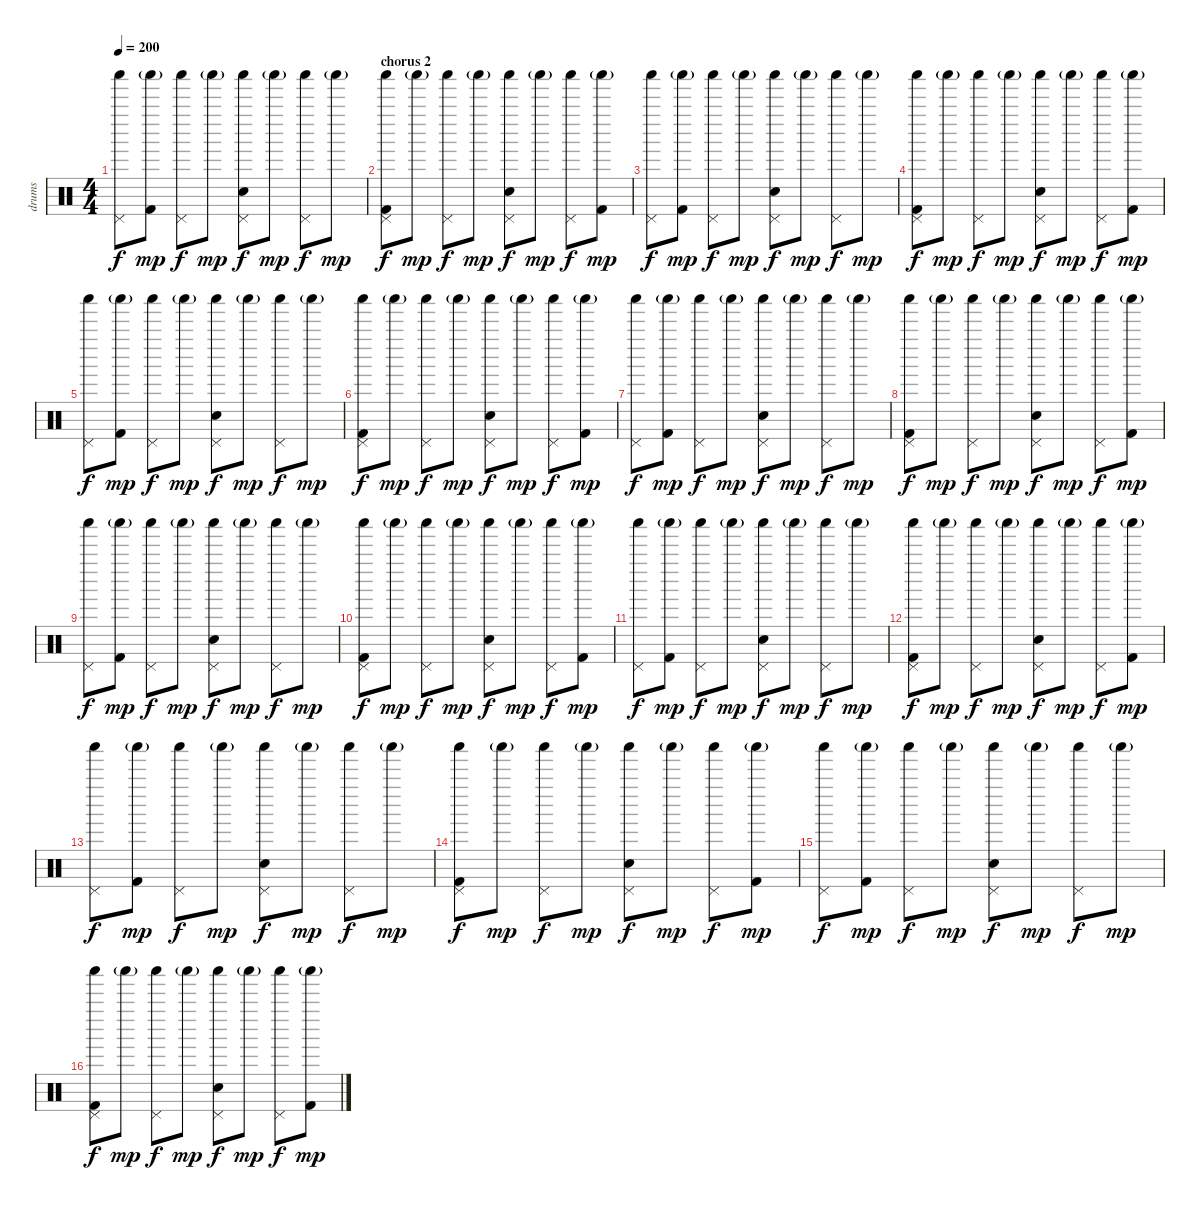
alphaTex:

\track ("drums" "drums") {instrument percussion}
\staff {score}
\articulation defaults
\ts (4 4)
\tempo 200
\clef neutral
\ks c
("Shaker (hit)" "Pedal Hi-Hat (hit)").8{dy f} ("Kick (hit) 2" "Shaker (hit)"{g}).8{dy mp} ("Shaker (hit)" "Pedal Hi-Hat (hit)").8{dy f} "Shaker (hit)"{g}.8{dy mp} ("Electric Snare (hit)" "Shaker (hit)" "Pedal Hi-Hat (hit)").8{dy f} "Shaker (hit)"{g}.8{dy mp} ("Shaker (hit)" "Pedal Hi-Hat (hit)").8{dy f} "Shaker (hit)"{g}.8{dy mp} |
\section ("" "chorus 2")
("Kick (hit) 2" "Shaker (hit)" "Pedal Hi-Hat (hit)").8{dy f} "Shaker (hit)"{g}.8{dy mp} ("Shaker (hit)" "Pedal Hi-Hat (hit)").8{dy f} "Shaker (hit)"{g}.8{dy mp} ("Electric Snare (hit)" "Shaker (hit)" "Pedal Hi-Hat (hit)").8{dy f} "Shaker (hit)"{g}.8{dy mp} ("Shaker (hit)" "Pedal Hi-Hat (hit)").8{dy f} ("Kick (hit) 2" "Shaker (hit)"{g}).8{dy mp} |
("Shaker (hit)" "Pedal Hi-Hat (hit)").8{dy f} ("Kick (hit) 2" "Shaker (hit)"{g}).8{dy mp} ("Shaker (hit)" "Pedal Hi-Hat (hit)").8{dy f} "Shaker (hit)"{g}.8{dy mp} ("Electric Snare (hit)" "Shaker (hit)" "Pedal Hi-Hat (hit)").8{dy f} "Shaker (hit)"{g}.8{dy mp} ("Shaker (hit)" "Pedal Hi-Hat (hit)").8{dy f} "Shaker (hit)"{g}.8{dy mp} |
("Kick (hit) 2" "Shaker (hit)" "Pedal Hi-Hat (hit)").8{dy f} "Shaker (hit)"{g}.8{dy mp} ("Shaker (hit)" "Pedal Hi-Hat (hit)").8{dy f} "Shaker (hit)"{g}.8{dy mp} ("Electric Snare (hit)" "Shaker (hit)" "Pedal Hi-Hat (hit)").8{dy f} "Shaker (hit)"{g}.8{dy mp} ("Shaker (hit)" "Pedal Hi-Hat (hit)").8{dy f} ("Kick (hit) 2" "Shaker (hit)"{g}).8{dy mp} |
("Shaker (hit)" "Pedal Hi-Hat (hit)").8{dy f} ("Kick (hit) 2" "Shaker (hit)"{g}).8{dy mp} ("Shaker (hit)" "Pedal Hi-Hat (hit)").8{dy f} "Shaker (hit)"{g}.8{dy mp} ("Electric Snare (hit)" "Shaker (hit)" "Pedal Hi-Hat (hit)").8{dy f} "Shaker (hit)"{g}.8{dy mp} ("Shaker (hit)" "Pedal Hi-Hat (hit)").8{dy f} "Shaker (hit)"{g}.8{dy mp} |
("Kick (hit) 2" "Shaker (hit)" "Pedal Hi-Hat (hit)").8{dy f} "Shaker (hit)"{g}.8{dy mp} ("Shaker (hit)" "Pedal Hi-Hat (hit)").8{dy f} "Shaker (hit)"{g}.8{dy mp} ("Electric Snare (hit)" "Shaker (hit)" "Pedal Hi-Hat (hit)").8{dy f} "Shaker (hit)"{g}.8{dy mp} ("Shaker (hit)" "Pedal Hi-Hat (hit)").8{dy f} ("Kick (hit) 2" "Shaker (hit)"{g}).8{dy mp} |
("Shaker (hit)" "Pedal Hi-Hat (hit)").8{dy f} ("Kick (hit) 2" "Shaker (hit)"{g}).8{dy mp} ("Shaker (hit)" "Pedal Hi-Hat (hit)").8{dy f} "Shaker (hit)"{g}.8{dy mp} ("Electric Snare (hit)" "Shaker (hit)" "Pedal Hi-Hat (hit)").8{dy f} "Shaker (hit)"{g}.8{dy mp} ("Shaker (hit)" "Pedal Hi-Hat (hit)").8{dy f} "Shaker (hit)"{g}.8{dy mp} |
("Kick (hit) 2" "Shaker (hit)" "Pedal Hi-Hat (hit)").8{dy f} "Shaker (hit)"{g}.8{dy mp} ("Shaker (hit)" "Pedal Hi-Hat (hit)").8{dy f} "Shaker (hit)"{g}.8{dy mp} ("Electric Snare (hit)" "Shaker (hit)" "Pedal Hi-Hat (hit)").8{dy f} "Shaker (hit)"{g}.8{dy mp} ("Shaker (hit)" "Pedal Hi-Hat (hit)").8{dy f} ("Kick (hit) 2" "Shaker (hit)"{g}).8{dy mp} |
("Shaker (hit)" "Pedal Hi-Hat (hit)").8{dy f} ("Kick (hit) 2" "Shaker (hit)"{g}).8{dy mp} ("Shaker (hit)" "Pedal Hi-Hat (hit)").8{dy f} "Shaker (hit)"{g}.8{dy mp} ("Electric Snare (hit)" "Shaker (hit)" "Pedal Hi-Hat (hit)").8{dy f} "Shaker (hit)"{g}.8{dy mp} ("Shaker (hit)" "Pedal Hi-Hat (hit)").8{dy f} "Shaker (hit)"{g}.8{dy mp} |
("Kick (hit) 2" "Shaker (hit)" "Pedal Hi-Hat (hit)").8{dy f} "Shaker (hit)"{g}.8{dy mp} ("Shaker (hit)" "Pedal Hi-Hat (hit)").8{dy f} "Shaker (hit)"{g}.8{dy mp} ("Electric Snare (hit)" "Shaker (hit)" "Pedal Hi-Hat (hit)").8{dy f} "Shaker (hit)"{g}.8{dy mp} ("Shaker (hit)" "Pedal Hi-Hat (hit)").8{dy f} ("Kick (hit) 2" "Shaker (hit)"{g}).8{dy mp} |
("Shaker (hit)" "Pedal Hi-Hat (hit)").8{dy f} ("Kick (hit) 2" "Shaker (hit)"{g}).8{dy mp} ("Shaker (hit)" "Pedal Hi-Hat (hit)").8{dy f} "Shaker (hit)"{g}.8{dy mp} ("Electric Snare (hit)" "Shaker (hit)" "Pedal Hi-Hat (hit)").8{dy f} "Shaker (hit)"{g}.8{dy mp} ("Shaker (hit)" "Pedal Hi-Hat (hit)").8{dy f} "Shaker (hit)"{g}.8{dy mp} |
("Kick (hit) 2" "Shaker (hit)" "Pedal Hi-Hat (hit)").8{dy f} "Shaker (hit)"{g}.8{dy mp} ("Shaker (hit)" "Pedal Hi-Hat (hit)").8{dy f} "Shaker (hit)"{g}.8{dy mp} ("Electric Snare (hit)" "Shaker (hit)" "Pedal Hi-Hat (hit)").8{dy f} "Shaker (hit)"{g}.8{dy mp} ("Shaker (hit)" "Pedal Hi-Hat (hit)").8{dy f} ("Kick (hit) 2" "Shaker (hit)"{g}).8{dy mp} |
("Shaker (hit)" "Pedal Hi-Hat (hit)").8{dy f} ("Kick (hit) 2" "Shaker (hit)"{g}).8{dy mp} ("Shaker (hit)" "Pedal Hi-Hat (hit)").8{dy f} "Shaker (hit)"{g}.8{dy mp} ("Electric Snare (hit)" "Shaker (hit)" "Pedal Hi-Hat (hit)").8{dy f} "Shaker (hit)"{g}.8{dy mp} ("Shaker (hit)" "Pedal Hi-Hat (hit)").8{dy f} "Shaker (hit)"{g}.8{dy mp} |
("Kick (hit) 2" "Shaker (hit)" "Pedal Hi-Hat (hit)").8{dy f} "Shaker (hit)"{g}.8{dy mp} ("Shaker (hit)" "Pedal Hi-Hat (hit)").8{dy f} "Shaker (hit)"{g}.8{dy mp} ("Electric Snare (hit)" "Shaker (hit)" "Pedal Hi-Hat (hit)").8{dy f} "Shaker (hit)"{g}.8{dy mp} ("Shaker (hit)" "Pedal Hi-Hat (hit)").8{dy f} ("Kick (hit) 2" "Shaker (hit)"{g}).8{dy mp} |
("Shaker (hit)" "Pedal Hi-Hat (hit)").8{dy f} ("Kick (hit) 2" "Shaker (hit)"{g}).8{dy mp} ("Shaker (hit)" "Pedal Hi-Hat (hit)").8{dy f} "Shaker (hit)"{g}.8{dy mp} ("Electric Snare (hit)" "Shaker (hit)" "Pedal Hi-Hat (hit)").8{dy f} "Shaker (hit)"{g}.8{dy mp} ("Shaker (hit)" "Pedal Hi-Hat (hit)").8{dy f} "Shaker (hit)"{g}.8{dy mp} |
("Kick (hit) 2" "Shaker (hit)" "Pedal Hi-Hat (hit)").8{dy f} "Shaker (hit)"{g}.8{dy mp} ("Shaker (hit)" "Pedal Hi-Hat (hit)").8{dy f} "Shaker (hit)"{g}.8{dy mp} ("Electric Snare (hit)" "Shaker (hit)" "Pedal Hi-Hat (hit)").8{dy f} "Shaker (hit)"{g}.8{dy mp} ("Shaker (hit)" "Pedal Hi-Hat (hit)").8{dy f} ("Kick (hit) 2" "Shaker (hit)"{g}).8{dy mp}
